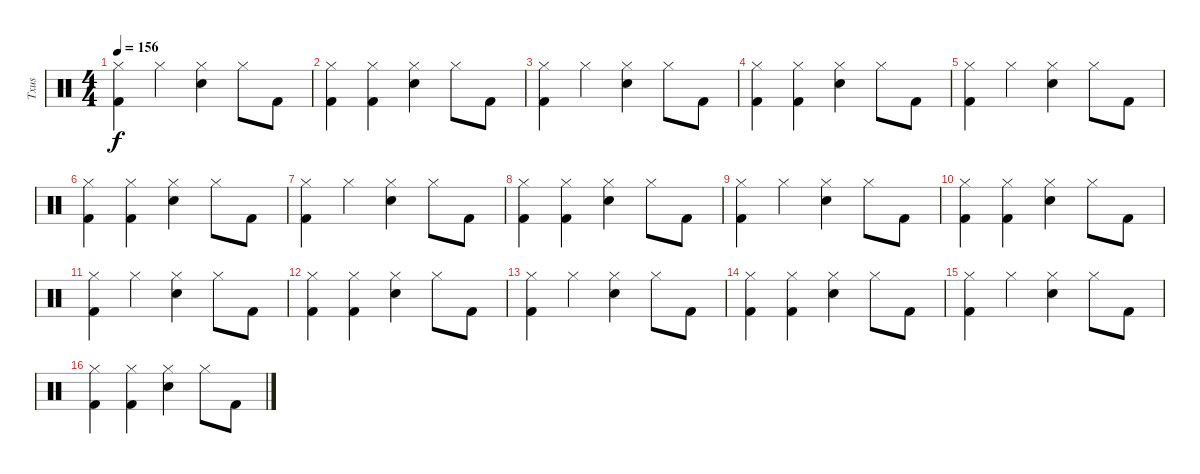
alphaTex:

\track ("Txus" "Txus") {instrument percussion}
\staff {score}
\articulation defaults
\ts (4 4)
\tempo 156
\clef neutral
\ks c
("Hi-Hat (closed)" "Kick (hit) 2").4{dy f} "Hi-Hat (closed)".4 ("Snare (hit) 2" "Hi-Hat (closed)").4 "Hi-Hat (closed)".8 "Kick (hit) 2".8 |
("Kick (hit) 2" "Hi-Hat (closed)").4 ("Hi-Hat (closed)" "Kick (hit) 2").4 ("Hi-Hat (closed)" "Snare (hit) 2").4 "Hi-Hat (closed)".8 "Kick (hit) 2".8 |
("Hi-Hat (closed)" "Kick (hit) 2").4 "Hi-Hat (closed)".4 ("Snare (hit) 2" "Hi-Hat (closed)").4 "Hi-Hat (closed)".8 "Kick (hit) 2".8 |
("Kick (hit) 2" "Hi-Hat (closed)").4 ("Hi-Hat (closed)" "Kick (hit) 2").4 ("Hi-Hat (closed)" "Snare (hit) 2").4 "Hi-Hat (closed)".8 "Kick (hit) 2".8 |
("Hi-Hat (closed)" "Kick (hit) 2").4 "Hi-Hat (closed)".4 ("Snare (hit) 2" "Hi-Hat (closed)").4 "Hi-Hat (closed)".8 "Kick (hit) 2".8 |
("Kick (hit) 2" "Hi-Hat (closed)").4 ("Hi-Hat (closed)" "Kick (hit) 2").4 ("Hi-Hat (closed)" "Snare (hit) 2").4 "Hi-Hat (closed)".8 "Kick (hit) 2".8 |
("Hi-Hat (closed)" "Kick (hit) 2").4 "Hi-Hat (closed)".4 ("Snare (hit) 2" "Hi-Hat (closed)").4 "Hi-Hat (closed)".8 "Kick (hit) 2".8 |
("Kick (hit) 2" "Hi-Hat (closed)").4 ("Hi-Hat (closed)" "Kick (hit) 2").4 ("Hi-Hat (closed)" "Snare (hit) 2").4 "Hi-Hat (closed)".8 "Kick (hit) 2".8 |
("Hi-Hat (closed)" "Kick (hit) 2").4 "Hi-Hat (closed)".4 ("Snare (hit) 2" "Hi-Hat (closed)").4 "Hi-Hat (closed)".8 "Kick (hit) 2".8 |
("Kick (hit) 2" "Hi-Hat (closed)").4 ("Hi-Hat (closed)" "Kick (hit) 2").4 ("Hi-Hat (closed)" "Snare (hit) 2").4 "Hi-Hat (closed)".8 "Kick (hit) 2".8 |
("Hi-Hat (closed)" "Kick (hit) 2").4 "Hi-Hat (closed)".4 ("Snare (hit) 2" "Hi-Hat (closed)").4 "Hi-Hat (closed)".8 "Kick (hit) 2".8 |
("Kick (hit) 2" "Hi-Hat (closed)").4 ("Hi-Hat (closed)" "Kick (hit) 2").4 ("Hi-Hat (closed)" "Snare (hit) 2").4 "Hi-Hat (closed)".8 "Kick (hit) 2".8 |
("Hi-Hat (closed)" "Kick (hit) 2").4 "Hi-Hat (closed)".4 ("Snare (hit) 2" "Hi-Hat (closed)").4 "Hi-Hat (closed)".8 "Kick (hit) 2".8 |
("Kick (hit) 2" "Hi-Hat (closed)").4 ("Hi-Hat (closed)" "Kick (hit) 2").4 ("Hi-Hat (closed)" "Snare (hit) 2").4 "Hi-Hat (closed)".8 "Kick (hit) 2".8 |
("Hi-Hat (closed)" "Kick (hit) 2").4 "Hi-Hat (closed)".4 ("Snare (hit) 2" "Hi-Hat (closed)").4 "Hi-Hat (closed)".8 "Kick (hit) 2".8 |
("Kick (hit) 2" "Hi-Hat (closed)").4 ("Hi-Hat (closed)" "Kick (hit) 2").4 ("Hi-Hat (closed)" "Snare (hit) 2").4 "Hi-Hat (closed)".8 "Kick (hit) 2".8
